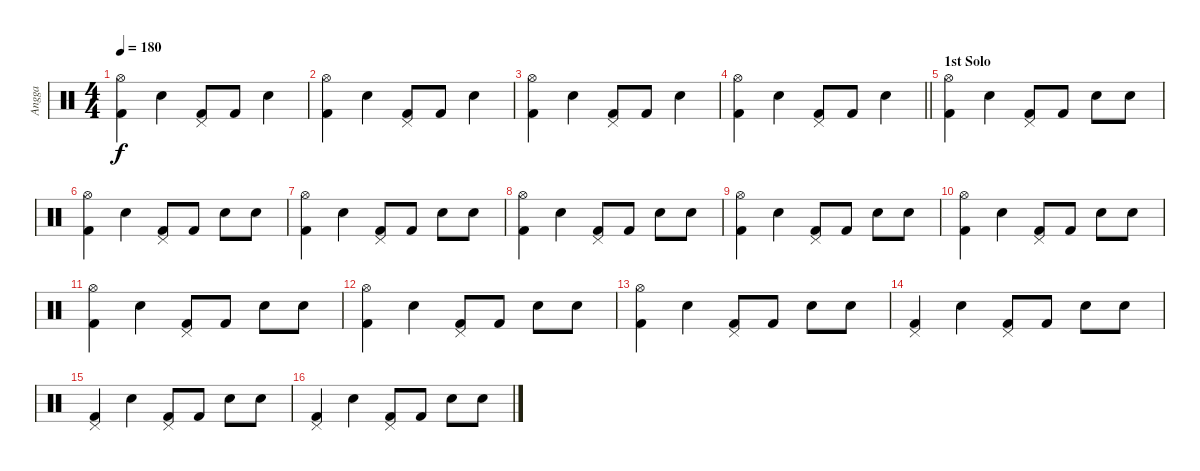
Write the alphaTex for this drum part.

\track ("Angga" "Angga") {instrument percussion}
\staff {score}
\articulation defaults
\ts (4 4)
\tempo 180
\clef neutral
\ks c
("Kick (hit) 2" "Hi-Hat (open)").4{dy f} "Snare (hit) 2".4 ("Kick (hit) 2" "Pedal Hi-Hat (hit)").8 "Kick (hit) 2".8 "Snare (hit) 2".4 |
("Kick (hit) 2" "Hi-Hat (open)").4 "Snare (hit) 2".4 ("Kick (hit) 2" "Pedal Hi-Hat (hit)").8 "Kick (hit) 2".8 "Snare (hit) 2".4 |
("Kick (hit) 2" "Hi-Hat (open)").4 "Snare (hit) 2".4 ("Kick (hit) 2" "Pedal Hi-Hat (hit)").8 "Kick (hit) 2".8 "Snare (hit) 2".4 |
\barLineRight lightlight
("Kick (hit) 2" "Hi-Hat (open)").4 "Snare (hit) 2".4 ("Kick (hit) 2" "Pedal Hi-Hat (hit)").8 "Kick (hit) 2".8 "Snare (hit) 2".4 |
\section ("" "1st Solo")
("Kick (hit) 2" "Hi-Hat (open)").4 "Snare (hit) 2".4 ("Kick (hit) 2" "Pedal Hi-Hat (hit)").8 "Kick (hit) 2".8 "Snare (hit) 2".8 "Snare (hit) 2".8 |
("Kick (hit) 2" "Hi-Hat (open)").4 "Snare (hit) 2".4 ("Kick (hit) 2" "Pedal Hi-Hat (hit)").8 "Kick (hit) 2".8 "Snare (hit) 2".8 "Snare (hit) 2".8 |
("Kick (hit) 2" "Hi-Hat (open)").4 "Snare (hit) 2".4 ("Kick (hit) 2" "Pedal Hi-Hat (hit)").8 "Kick (hit) 2".8 "Snare (hit) 2".8 "Snare (hit) 2".8 |
("Kick (hit) 2" "Hi-Hat (open)").4 "Snare (hit) 2".4 ("Kick (hit) 2" "Pedal Hi-Hat (hit)").8 "Kick (hit) 2".8 "Snare (hit) 2".8 "Snare (hit) 2".8 |
("Kick (hit) 2" "Hi-Hat (open)").4 "Snare (hit) 2".4 ("Kick (hit) 2" "Pedal Hi-Hat (hit)").8 "Kick (hit) 2".8 "Snare (hit) 2".8 "Snare (hit) 2".8 |
("Kick (hit) 2" "Hi-Hat (open)").4 "Snare (hit) 2".4 ("Kick (hit) 2" "Pedal Hi-Hat (hit)").8 "Kick (hit) 2".8 "Snare (hit) 2".8 "Snare (hit) 2".8 |
("Kick (hit) 2" "Hi-Hat (open)").4 "Snare (hit) 2".4 ("Kick (hit) 2" "Pedal Hi-Hat (hit)").8 "Kick (hit) 2".8 "Snare (hit) 2".8 "Snare (hit) 2".8 |
("Kick (hit) 2" "Hi-Hat (open)").4 "Snare (hit) 2".4 ("Kick (hit) 2" "Pedal Hi-Hat (hit)").8 "Kick (hit) 2".8 "Snare (hit) 2".8 "Snare (hit) 2".8 |
("Kick (hit) 2" "Hi-Hat (open)").4 "Snare (hit) 2".4 ("Kick (hit) 2" "Pedal Hi-Hat (hit)").8 "Kick (hit) 2".8 "Snare (hit) 2".8 "Snare (hit) 2".8 |
("Kick (hit) 2" "Pedal Hi-Hat (hit)").4 "Snare (hit) 2".4 ("Kick (hit) 2" "Pedal Hi-Hat (hit)").8 "Kick (hit) 2".8 "Snare (hit) 2".8 "Snare (hit) 2".8 |
("Kick (hit) 2" "Pedal Hi-Hat (hit)").4 "Snare (hit) 2".4 ("Kick (hit) 2" "Pedal Hi-Hat (hit)").8 "Kick (hit) 2".8 "Snare (hit) 2".8 "Snare (hit) 2".8 |
("Kick (hit) 2" "Pedal Hi-Hat (hit)").4 "Snare (hit) 2".4 ("Kick (hit) 2" "Pedal Hi-Hat (hit)").8 "Kick (hit) 2".8 "Snare (hit) 2".8 "Snare (hit) 2".8
